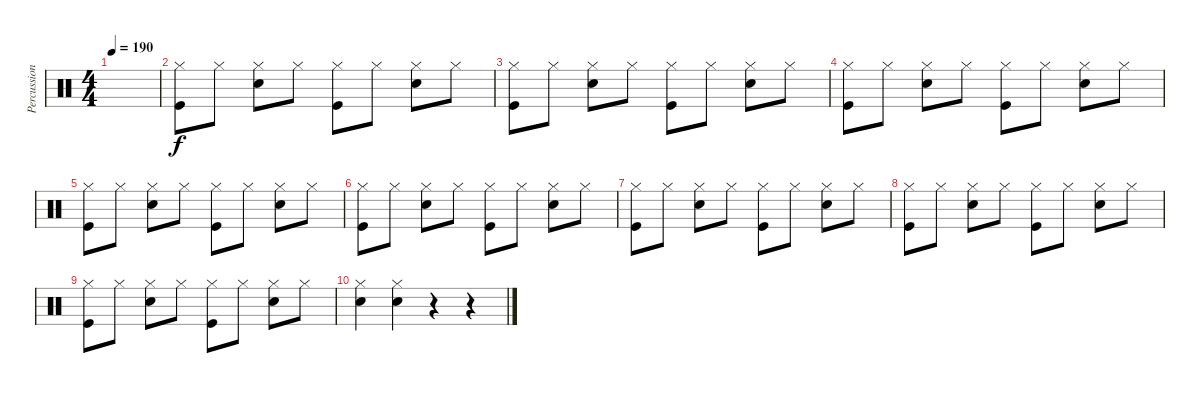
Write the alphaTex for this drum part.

\track ("Percussion" "Percussion") {instrument percussion}
\staff {score}
\articulation defaults
\ts (4 4)
\tempo 190
\clef neutral
\ks c
|
("Hi-Hat (closed)" "Kick (hit)").8 "Hi-Hat (closed)".8 ("Hi-Hat (closed)" "Electric Snare (hit)").8 "Hi-Hat (closed)".8 ("Hi-Hat (closed)" "Kick (hit)").8 "Hi-Hat (closed)".8 ("Hi-Hat (closed)" "Electric Snare (hit)").8 "Hi-Hat (closed)".8 |
("Hi-Hat (closed)" "Kick (hit)").8 "Hi-Hat (closed)".8 ("Hi-Hat (closed)" "Electric Snare (hit)").8 "Hi-Hat (closed)".8 ("Hi-Hat (closed)" "Kick (hit)").8 "Hi-Hat (closed)".8 ("Hi-Hat (closed)" "Electric Snare (hit)").8 "Hi-Hat (closed)".8 |
("Hi-Hat (closed)" "Kick (hit)").8 "Hi-Hat (closed)".8 ("Hi-Hat (closed)" "Electric Snare (hit)").8 "Hi-Hat (closed)".8 ("Hi-Hat (closed)" "Kick (hit)").8 "Hi-Hat (closed)".8 ("Hi-Hat (closed)" "Electric Snare (hit)").8 "Hi-Hat (closed)".8 |
("Hi-Hat (closed)" "Kick (hit)").8 "Hi-Hat (closed)".8 ("Hi-Hat (closed)" "Electric Snare (hit)").8 "Hi-Hat (closed)".8 ("Hi-Hat (closed)" "Kick (hit)").8 "Hi-Hat (closed)".8 ("Hi-Hat (closed)" "Electric Snare (hit)").8 "Hi-Hat (closed)".8 |
("Hi-Hat (closed)" "Kick (hit)").8 "Hi-Hat (closed)".8 ("Hi-Hat (closed)" "Electric Snare (hit)").8 "Hi-Hat (closed)".8 ("Hi-Hat (closed)" "Kick (hit)").8 "Hi-Hat (closed)".8 ("Hi-Hat (closed)" "Electric Snare (hit)").8 "Hi-Hat (closed)".8 |
("Hi-Hat (closed)" "Kick (hit)").8 "Hi-Hat (closed)".8 ("Hi-Hat (closed)" "Electric Snare (hit)").8 "Hi-Hat (closed)".8 ("Hi-Hat (closed)" "Kick (hit)").8 "Hi-Hat (closed)".8 ("Hi-Hat (closed)" "Electric Snare (hit)").8 "Hi-Hat (closed)".8 |
("Hi-Hat (closed)" "Kick (hit)").8 "Hi-Hat (closed)".8 ("Hi-Hat (closed)" "Electric Snare (hit)").8 "Hi-Hat (closed)".8 ("Hi-Hat (closed)" "Kick (hit)").8 "Hi-Hat (closed)".8 ("Hi-Hat (closed)" "Electric Snare (hit)").8 "Hi-Hat (closed)".8 |
("Hi-Hat (closed)" "Kick (hit)").8 "Hi-Hat (closed)".8 ("Hi-Hat (closed)" "Electric Snare (hit)").8 "Hi-Hat (closed)".8 ("Hi-Hat (closed)" "Kick (hit)").8 "Hi-Hat (closed)".8 ("Hi-Hat (closed)" "Electric Snare (hit)").8 "Hi-Hat (closed)".8 |
("Hi-Hat (closed)" "Electric Snare (hit)").4 ("Hi-Hat (closed)" "Electric Snare (hit)").4 r.4 r.4
